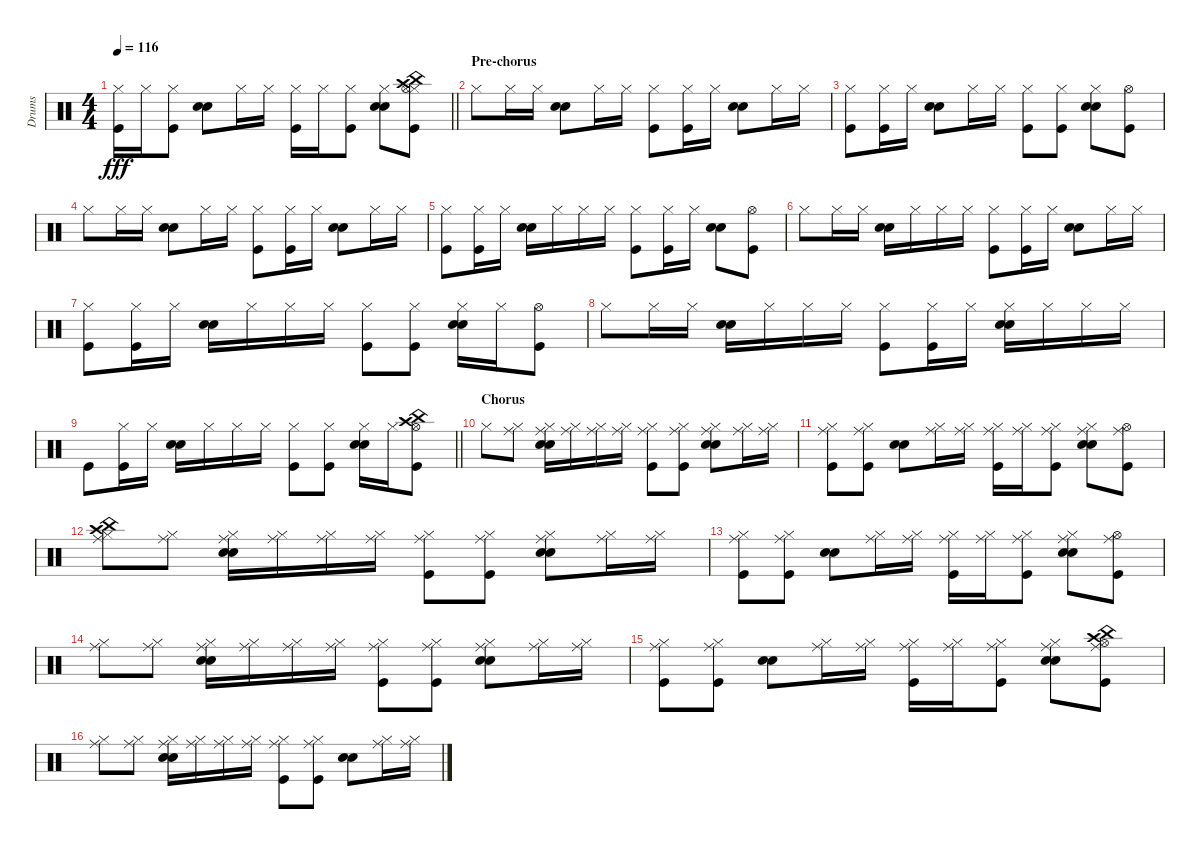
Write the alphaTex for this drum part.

\track ("Drums" "Drums") {instrument percussion}
\staff {score}
\articulation defaults
\ts (4 4)
\tempo 116
\clef neutral
\barLineRight lightlight
\ks c
("Hi-Hat (closed)" "Kick (hit)").16{dy fff} "Hi-Hat (closed)".16 ("Hi-Hat (closed)" "Kick (hit)").8 ("Snare (hit) 2" "Electric Snare (hit)").8 "Hi-Hat (closed)".16 "Hi-Hat (closed)".16 ("Kick (hit)" "Hi-Hat (closed)").16 "Hi-Hat (closed)".16 ("Hi-Hat (closed)" "Kick (hit)").8 ("Snare (hit) 2" "Electric Snare (hit)" "Hi-Hat (closed)").8 ("Hi-Hat (closed)" "Crash high (hit)" "China (hit)" "Kick (hit)" "Hi-Hat (open)").8 |
\section ("" "Pre-chorus")
"Hi-Hat (closed)".8 "Hi-Hat (closed)".16 "Hi-Hat (closed)".16 ("Snare (hit) 2" "Electric Snare (hit)").8 "Hi-Hat (closed)".16 "Hi-Hat (closed)".16 ("Hi-Hat (closed)" "Kick (hit)").8 ("Hi-Hat (closed)" "Kick (hit)").16 "Hi-Hat (closed)".16 ("Snare (hit) 2" "Electric Snare (hit)").8 "Hi-Hat (closed)".16 "Hi-Hat (closed)".16 |
("Hi-Hat (closed)" "Kick (hit)").8 ("Hi-Hat (closed)" "Kick (hit)").16 "Hi-Hat (closed)".16 ("Snare (hit) 2" "Electric Snare (hit)").8 "Hi-Hat (closed)".16 "Hi-Hat (closed)".16 ("Kick (hit)" "Hi-Hat (closed)").8 ("Kick (hit)" "Hi-Hat (closed)").8 ("Hi-Hat (closed)" "Snare (hit) 2" "Electric Snare (hit)").8 ("Hi-Hat (open)" "Kick (hit)").8 |
"Hi-Hat (closed)".8 "Hi-Hat (closed)".16 "Hi-Hat (closed)".16 ("Snare (hit) 2" "Electric Snare (hit)").8 "Hi-Hat (closed)".16 "Hi-Hat (closed)".16 ("Hi-Hat (closed)" "Kick (hit)").8 ("Hi-Hat (closed)" "Kick (hit)").16 "Hi-Hat (closed)".16 ("Snare (hit) 2" "Electric Snare (hit)").8 "Hi-Hat (closed)".16 "Hi-Hat (closed)".16 |
("Kick (hit)" "Hi-Hat (closed)").8 ("Hi-Hat (closed)" "Kick (hit)").16 "Hi-Hat (closed)".16 ("Snare (hit) 2" "Electric Snare (hit)").16 "Hi-Hat (closed)".16 "Hi-Hat (closed)".16 "Hi-Hat (closed)".16 ("Hi-Hat (closed)" "Kick (hit)").8 ("Hi-Hat (closed)" "Kick (hit)").16 "Hi-Hat (closed)".16 ("Snare (hit) 2" "Electric Snare (hit)").8 ("Hi-Hat (open)" "Kick (hit)").8 |
"Hi-Hat (closed)".8 "Hi-Hat (closed)".16 "Hi-Hat (closed)".16 ("Snare (hit) 2" "Electric Snare (hit)").16 "Hi-Hat (closed)".16 "Hi-Hat (closed)".16 "Hi-Hat (closed)".16 ("Hi-Hat (closed)" "Kick (hit)").8 ("Hi-Hat (closed)" "Kick (hit)").16 "Hi-Hat (closed)".16 ("Snare (hit) 2" "Electric Snare (hit)").8 "Hi-Hat (closed)".16 "Hi-Hat (closed)".16 |
("Hi-Hat (closed)" "Kick (hit)").8 ("Hi-Hat (closed)" "Kick (hit)").16 "Hi-Hat (closed)".16 ("Snare (hit) 2" "Electric Snare (hit)").16 "Hi-Hat (closed)".16 "Hi-Hat (closed)".16 "Hi-Hat (closed)".16 ("Hi-Hat (closed)" "Kick (hit)").8 ("Hi-Hat (closed)" "Kick (hit)").8 ("Snare (hit) 2" "Electric Snare (hit)" "Hi-Hat (closed)").16 "Hi-Hat (closed)".16 ("Kick (hit)" "Hi-Hat (open)").8 |
"Hi-Hat (closed)".8 "Hi-Hat (closed)".16 "Hi-Hat (closed)".16 ("Snare (hit) 2" "Electric Snare (hit)").16 "Hi-Hat (closed)".16 "Hi-Hat (closed)".16 "Hi-Hat (closed)".16 ("Hi-Hat (closed)" "Kick (hit)").8 ("Hi-Hat (closed)" "Kick (hit)").16 "Hi-Hat (closed)".16 ("Snare (hit) 2" "Electric Snare (hit)" "Hi-Hat (closed)").16 "Hi-Hat (closed)".16 "Hi-Hat (closed)".16 "Hi-Hat (closed)".16 |
\barLineRight lightlight "Kick (hit)".8
("Hi-Hat (closed)" "Kick (hit)").16 "Hi-Hat (closed)".16 ("Snare (hit) 2" "Electric Snare (hit)").16 "Hi-Hat (closed)".16 "Hi-Hat (closed)".16 "Hi-Hat (closed)".16 ("Kick (hit)" "Hi-Hat (closed)").8 ("Hi-Hat (closed)" "Kick (hit)").8 ("Hi-Hat (closed)" "Snare (hit) 2" "Electric Snare (hit)").16 "Hi-Hat (closed)".16 ("Hi-Hat (open)" "Crash high (hit)" "China (hit)" "Kick (hit)").8 |
\section ("" "Chorus")
"Hi-Hat (closed)".8 ("Ride (middle)" "Hi-Hat (closed)").8 ("Snare (hit) 2" "Electric Snare (hit)" "Ride (middle)" "Hi-Hat (closed)").16 ("Ride (middle)" "Hi-Hat (closed)").16 ("Ride (middle)" "Hi-Hat (closed)").16 ("Ride (middle)" "Hi-Hat (closed)").16 ("Ride (middle)" "Hi-Hat (closed)" "Kick (hit)").8 ("Ride (middle)" "Hi-Hat (closed)" "Kick (hit)").8 ("Snare (hit) 2" "Electric Snare (hit)" "Ride (middle)" "Hi-Hat (closed)").8 ("Ride (middle)" "Hi-Hat (closed)").16 ("Ride (middle)" "Hi-Hat (closed)").16 |
("Ride (middle)" "Hi-Hat (closed)" "Kick (hit)").8 ("Ride (middle)" "Hi-Hat (closed)" "Kick (hit)").8 ("Snare (hit) 2" "Electric Snare (hit)").8 ("Ride (middle)" "Hi-Hat (closed)").16 ("Ride (middle)" "Hi-Hat (closed)").16 ("Ride (middle)" "Hi-Hat (closed)" "Kick (hit)").16 ("Ride (middle)" "Hi-Hat (closed)").16 ("Ride (middle)" "Hi-Hat (closed)" "Kick (hit)").8 ("Snare (hit) 2" "Electric Snare (hit)" "Ride (middle)" "Hi-Hat (closed)").8 ("Hi-Hat (open)" "Kick (hit)" "Ride (middle)").8 |
("Ride (middle)" "Hi-Hat (closed)" "Crash high (hit)" "China (hit)").8 ("Ride (middle)" "Hi-Hat (closed)").8 ("Snare (hit) 2" "Electric Snare (hit)" "Ride (middle)" "Hi-Hat (closed)").16 ("Ride (middle)" "Hi-Hat (closed)").16 ("Ride (middle)" "Hi-Hat (closed)").16 ("Ride (middle)" "Hi-Hat (closed)").16 ("Ride (middle)" "Hi-Hat (closed)" "Kick (hit)").8 ("Ride (middle)" "Hi-Hat (closed)" "Kick (hit)").8 ("Snare (hit) 2" "Electric Snare (hit)" "Ride (middle)" "Hi-Hat (closed)").8 ("Ride (middle)" "Hi-Hat (closed)").16 ("Ride (middle)" "Hi-Hat (closed)").16 |
("Ride (middle)" "Hi-Hat (closed)" "Kick (hit)").8 ("Ride (middle)" "Hi-Hat (closed)" "Kick (hit)").8 ("Snare (hit) 2" "Electric Snare (hit)").8 ("Ride (middle)" "Hi-Hat (closed)").16 ("Ride (middle)" "Hi-Hat (closed)").16 ("Ride (middle)" "Hi-Hat (closed)" "Kick (hit)").16 ("Ride (middle)" "Hi-Hat (closed)").16 ("Ride (middle)" "Hi-Hat (closed)" "Kick (hit)").8 ("Snare (hit) 2" "Electric Snare (hit)" "Ride (middle)" "Hi-Hat (closed)").8 ("Ride (middle)" "Hi-Hat (open)" "Kick (hit)").8 |
("Ride (middle)" "Hi-Hat (closed)").8 ("Ride (middle)" "Hi-Hat (closed)").8 ("Snare (hit) 2" "Electric Snare (hit)" "Ride (middle)" "Hi-Hat (closed)").16 ("Ride (middle)" "Hi-Hat (closed)").16 ("Ride (middle)" "Hi-Hat (closed)").16 ("Ride (middle)" "Hi-Hat (closed)").16 ("Ride (middle)" "Hi-Hat (closed)" "Kick (hit)").8 ("Ride (middle)" "Hi-Hat (closed)" "Kick (hit)").8 ("Snare (hit) 2" "Electric Snare (hit)" "Ride (middle)" "Hi-Hat (closed)").8 ("Ride (middle)" "Hi-Hat (closed)").16 ("Ride (middle)" "Hi-Hat (closed)").16 |
("Ride (middle)" "Hi-Hat (closed)" "Kick (hit)").8 ("Ride (middle)" "Hi-Hat (closed)" "Kick (hit)").8 ("Snare (hit) 2" "Electric Snare (hit)").8 ("Ride (middle)" "Hi-Hat (closed)").16 ("Ride (middle)" "Hi-Hat (closed)").16 ("Ride (middle)" "Hi-Hat (closed)" "Kick (hit)").16 ("Ride (middle)" "Hi-Hat (closed)").16 ("Ride (middle)" "Hi-Hat (closed)" "Kick (hit)").8 ("Snare (hit) 2" "Electric Snare (hit)" "Ride (middle)" "Hi-Hat (closed)").8 ("Crash high (hit)" "China (hit)" "Ride (middle)" "Hi-Hat (open)" "Kick (hit)").8 |
("Ride (middle)" "Hi-Hat (closed)").8 ("Ride (middle)" "Hi-Hat (closed)").8 ("Snare (hit) 2" "Electric Snare (hit)" "Ride (middle)" "Hi-Hat (closed)").16 ("Ride (middle)" "Hi-Hat (closed)").16 ("Ride (middle)" "Hi-Hat (closed)").16 ("Ride (middle)" "Hi-Hat (closed)").16 ("Kick (hit)" "Ride (middle)" "Hi-Hat (closed)").8 ("Kick (hit)" "Ride (middle)" "Hi-Hat (closed)").8 ("Snare (hit) 2" "Electric Snare (hit)").8 ("Ride (middle)" "Hi-Hat (closed)").16 ("Ride (middle)" "Hi-Hat (closed)").16
